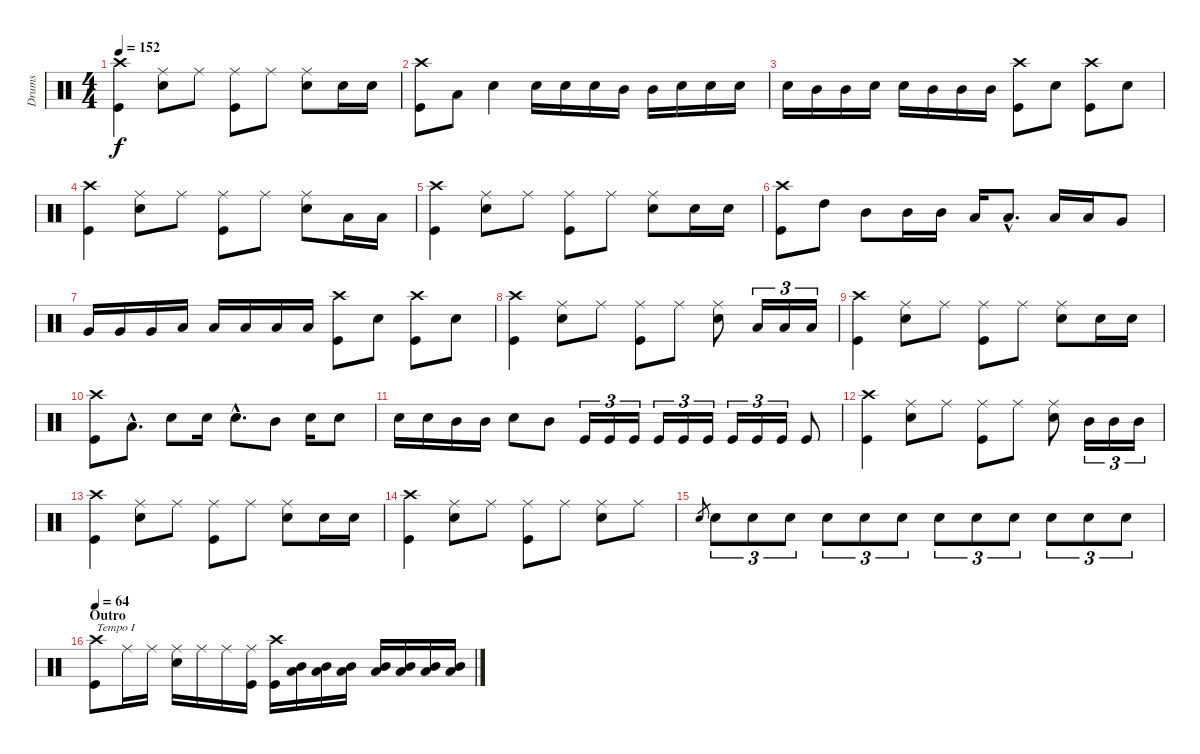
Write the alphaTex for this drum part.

\track ("Drums" "Drums") {instrument percussion}
\staff {score}
\articulation defaults
\ts (4 4)
\tempo 152
\clef neutral
\ks c
("Crash high (hit)" "Kick (hit)").4{dy f} ("Ride (middle)" "Snare (hit) 2").8 "Ride (middle)".8 ("Ride (middle)" "Kick (hit)").8 "Ride (middle)".8 ("Ride (middle)" "Snare (hit) 2").8 "Snare (hit) 2".16 "Snare (hit) 2".16 |
("Crash high (hit)" "Kick (hit)").8 "Low Tom (hit)".8 "Snare (hit) 2".4 "Snare (hit) 2".16 "Snare (hit) 2".16 "Snare (hit) 2".16 "Mid Tom (hit)".16 "Mid Tom (hit)".16 "Snare (hit) 2".16 "Snare (hit) 2".16 "Snare (hit) 2".16 |
"Snare (hit) 2".16 "Mid Tom (hit)".16 "Mid Tom (hit)".16 "Snare (hit) 2".16 "Snare (hit) 2".16 "Mid Tom (hit)".16 "Mid Tom (hit)".16 "Mid Tom (hit)".16 ("Crash high (hit)" "Kick (hit)").8 "Snare (hit) 2".8 ("Crash high (hit)" "Kick (hit)").8 "Snare (hit) 2".8 |
("Crash high (hit)" "Kick (hit)").4 ("Ride (middle)" "Snare (hit) 2").8 "Ride (middle)".8 ("Ride (middle)" "Kick (hit)").8 "Ride (middle)".8 ("Ride (middle)" "Snare (hit) 2").8 "Low Tom (hit)".16 "Low Tom (hit)".16 |
("Crash high (hit)" "Kick (hit)").4 ("Ride (middle)" "Snare (hit) 2").8 "Ride (middle)".8 ("Ride (middle)" "Kick (hit)").8 "Ride (middle)".8 ("Ride (middle)" "Snare (hit) 2").8 "Snare (hit) 2".16 "Snare (hit) 2".16 |
("Crash high (hit)" "Kick (hit)").8 "High Tom (hit)".8 "Mid Tom (hit)".8 "Mid Tom (hit)".16 "Mid Tom (hit)".16 "Low Tom (hit)".16 "Low Tom (hit)"{hac}.8{d} "Low Tom (hit)".16 "Low Tom (hit)".16 "Very Low Tom (hit)".8 |
"Very Low Tom (hit)".16 "Very Low Tom (hit)".16 "Very Low Tom (hit)".16 "Low Floor Tom (hit)".16 "Low Floor Tom (hit)".16 "Low Floor Tom (hit)".16 "Low Floor Tom (hit)".16 "Low Floor Tom (hit)".16 ("Crash high (hit)" "Kick (hit)").8 "Snare (hit) 2".8 ("Crash high (hit)" "Kick (hit)").8 "Snare (hit) 2".8 |
("Crash high (hit)" "Kick (hit)").4 ("Ride (middle)" "Snare (hit) 2").8 "Ride (middle)".8 ("Ride (middle)" "Kick (hit)").8 "Ride (middle)".8 ("Ride (middle)" "Snare (hit) 2").8 "Low Tom (hit)".16{tu (3 2)} "Low Tom (hit)".16{tu (3 2)} "Low Tom (hit)".16{tu (3 2)} |
("Crash high (hit)" "Kick (hit)").4 ("Ride (middle)" "Snare (hit) 2").8 "Ride (middle)".8 ("Ride (middle)" "Kick (hit)").8 "Ride (middle)".8 ("Ride (middle)" "Snare (hit) 2").8 "Snare (hit) 2".16 "Snare (hit) 2".16 |
("Crash high (hit)" "Kick (hit)").8 "Low Tom (hit)"{hac}.8{d} "Snare (hit) 2".8 "Snare (hit) 2".16 "Snare (hit) 2"{hac}.8{d} "Mid Tom (hit)".8 "Snare (hit) 2".16 "Snare (hit) 2".8 |
"Snare (hit) 2".16 "Snare (hit) 2".16 "Mid Tom (hit)".16 "Mid Tom (hit)".16 "Snare (hit) 2".8 "Mid Tom (hit)".8 "Kick (hit)".16{tu (3 2)} "Kick (hit)".16{tu (3 2)} "Kick (hit)".16{tu (3 2)} "Kick (hit)".16{tu (3 2)} "Kick (hit)".16{tu (3 2)} "Kick (hit)".16{tu (3 2)} "Kick (hit)".16{tu (3 2)} "Kick (hit)".16{tu (3 2)} "Kick (hit)".16{tu (3 2)} "Kick (hit)".8 |
("Crash high (hit)" "Kick (hit)").4 ("Ride (middle)" "Snare (hit) 2").8 "Ride (middle)".8 ("Ride (middle)" "Kick (hit)").8 "Ride (middle)".8 ("Ride (middle)" "Snare (hit) 2").8 "Mid Tom (hit)".16{tu (3 2)} "Mid Tom (hit)".16{tu (3 2)} "Mid Tom (hit)".16{tu (3 2)} |
("Crash high (hit)" "Kick (hit)").4 ("Ride (middle)" "Snare (hit) 2").8 "Ride (middle)".8 ("Ride (middle)" "Kick (hit)").8 "Ride (middle)".8 ("Ride (middle)" "Snare (hit) 2").8 "Snare (hit) 2".16 "Snare (hit) 2".16 |
("Crash high (hit)" "Kick (hit)").4 ("Ride (middle)" "Snare (hit) 2").8 "Ride (middle)".8 ("Ride (middle)" "Kick (hit)").8 "Ride (middle)".8 ("Ride (middle)" "Snare (hit) 2").8 "Ride (middle)".8 |
"Snare (hit) 2".8{gr} "Snare (hit) 2".8{tu (3 2)} "Snare (hit) 2".8{tu (3 2)} "Snare (hit) 2".8{tu (3 2)} "Snare (hit) 2".8{tu (3 2)} "Snare (hit) 2".8{tu (3 2)} "Snare (hit) 2".8{tu (3 2)} "Snare (hit) 2".8{tu (3 2)} "Snare (hit) 2".8{tu (3 2)} "Snare (hit) 2".8{tu (3 2)} "Snare (hit) 2".8{tu (3 2)} "Snare (hit) 2".8{tu (3 2)} "Snare (hit) 2".8{tu (3 2)} |
\section ("" "Outro")
\tempo 64
("Crash high (hit)" "Kick (hit)").8{txt "Tempo I"} "Ride (middle)".16 "Ride (middle)".16 ("Ride (middle)" "Snare (hit) 2").16 "Ride (middle)".16 "Ride (middle)".16 ("Ride (middle)" "Kick (hit)").16 ("Crash high (hit)" "Kick (hit)").16 ("Low Tom (hit)" "Mid Tom (hit)").16 ("Low Tom (hit)" "Mid Tom (hit)").16 ("Low Tom (hit)" "Mid Tom (hit)").16 ("Low Tom (hit)" "Mid Tom (hit)").16 ("Low Tom (hit)" "Mid Tom (hit)").16 ("Low Tom (hit)" "Mid Tom (hit)").16 ("Low Tom (hit)" "Mid Tom (hit)").16
